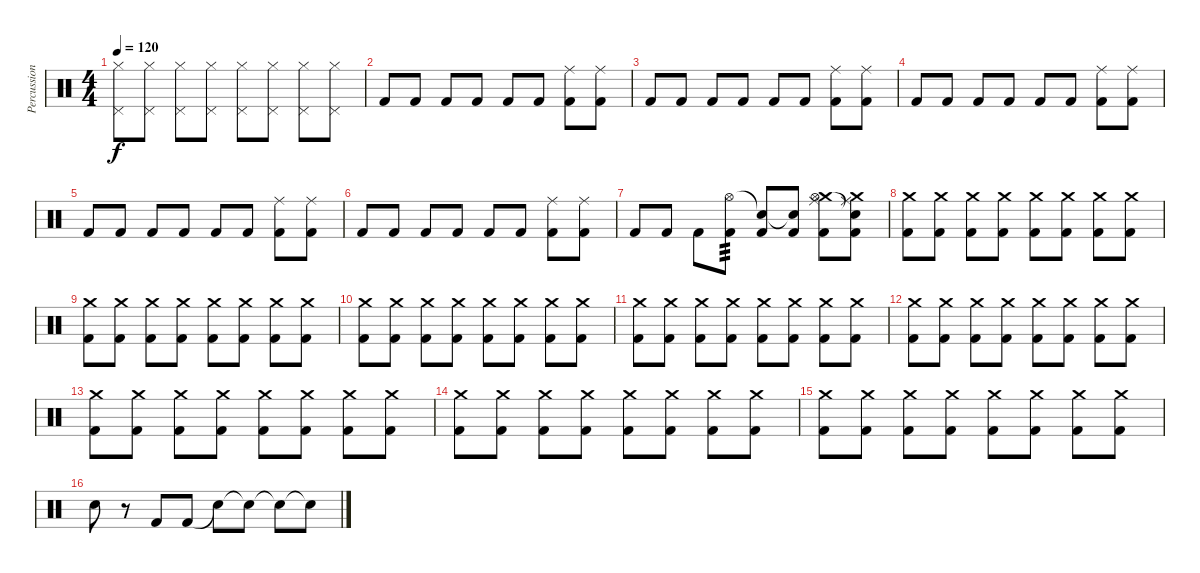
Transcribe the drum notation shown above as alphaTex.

\track ("Percussioni" "Percussion") {instrument percussion}
\staff {score}
\articulation defaults
\ts (4 4)
\tempo 120
\clef neutral
\ks c
("Pedal Hi-Hat (hit)" "Hi-Hat (closed)").8{dy f} ("Hi-Hat (closed)" "Pedal Hi-Hat (hit)").8 ("Pedal Hi-Hat (hit)" "Hi-Hat (closed)").8 ("Pedal Hi-Hat (hit)" "Hi-Hat (closed)").8 ("Pedal Hi-Hat (hit)" "Hi-Hat (closed)").8 ("Pedal Hi-Hat (hit)" "Hi-Hat (closed)").8 ("Pedal Hi-Hat (hit)" "Hi-Hat (closed)").8 ("Pedal Hi-Hat (hit)" "Hi-Hat (closed)").8 |
"Kick (hit) 2".8 "Kick (hit) 2".8 "Kick (hit) 2".8 "Kick (hit) 2".8 "Kick (hit) 2".8 "Kick (hit) 2".8 ("Kick (hit) 2" "Ride (middle)").8 ("Kick (hit) 2" "Ride (middle)").8 |
"Kick (hit) 2".8 "Kick (hit) 2".8 "Kick (hit) 2".8 "Kick (hit) 2".8 "Kick (hit) 2".8 "Kick (hit) 2".8 ("Kick (hit) 2" "Ride (middle)").8 ("Kick (hit) 2" "Ride (middle)").8 |
"Kick (hit) 2".8 "Kick (hit) 2".8 "Kick (hit) 2".8 "Kick (hit) 2".8 "Kick (hit) 2".8 "Kick (hit) 2".8 ("Kick (hit) 2" "Ride (middle)").8 ("Kick (hit) 2" "Ride (middle)").8 |
"Kick (hit) 2".8 "Kick (hit) 2".8 "Kick (hit) 2".8 "Kick (hit) 2".8 "Kick (hit) 2".8 "Kick (hit) 2".8 ("Kick (hit) 2" "Ride (middle)").8 ("Kick (hit) 2" "Ride (middle)").8 |
"Kick (hit) 2".8 "Kick (hit) 2".8 "Kick (hit) 2".8 "Kick (hit) 2".8 "Kick (hit) 2".8 "Kick (hit) 2".8 ("Kick (hit) 2" "Ride (middle)").8 ("Kick (hit) 2" "Ride (middle)").8 |
"Kick (hit) 2".8 "Kick (hit) 2".8 "Kick (hit) 2".8 ("Kick (hit) 2" "Hi-Hat (open)").8{tp 3} ("Kick (hit) 2" "Snare (hit)"{t}).8 ("Kick (hit) 2" "Snare (hit)"{t}).8 ("Kick (hit) 2" "Ride (middle)" "Crash medium (hit)" "Hi-Hat (open)").8 ("Kick (hit) 2" "Ride (middle)" "Crash medium (hit)" "Snare (hit)"{t}).8 |
("Kick (hit) 2" "Crash medium (hit)").8 ("Kick (hit) 2" "Crash medium (hit)").8 ("Kick (hit) 2" "Crash medium (hit)").8 ("Kick (hit) 2" "Crash medium (hit)").8 ("Kick (hit) 2" "Crash medium (hit)").8 ("Kick (hit) 2" "Crash medium (hit)").8 ("Kick (hit) 2" "Crash medium (hit)").8 ("Kick (hit) 2" "Crash medium (hit)").8 |
("Kick (hit) 2" "Crash medium (hit)").8 ("Kick (hit) 2" "Crash medium (hit)").8 ("Kick (hit) 2" "Crash medium (hit)").8 ("Kick (hit) 2" "Crash medium (hit)").8 ("Kick (hit) 2" "Crash medium (hit)").8 ("Kick (hit) 2" "Crash medium (hit)").8 ("Kick (hit) 2" "Crash medium (hit)").8 ("Kick (hit) 2" "Crash medium (hit)").8 |
("Kick (hit) 2" "Crash medium (hit)").8 ("Kick (hit) 2" "Crash medium (hit)").8 ("Kick (hit) 2" "Crash medium (hit)").8 ("Kick (hit) 2" "Crash medium (hit)").8 ("Kick (hit) 2" "Crash medium (hit)").8 ("Kick (hit) 2" "Crash medium (hit)").8 ("Kick (hit) 2" "Crash medium (hit)").8 ("Kick (hit) 2" "Crash medium (hit)").8 |
("Kick (hit) 2" "Crash medium (hit)").8 ("Kick (hit) 2" "Crash medium (hit)").8 ("Kick (hit) 2" "Crash medium (hit)").8 ("Kick (hit) 2" "Crash medium (hit)").8 ("Kick (hit) 2" "Crash medium (hit)").8 ("Kick (hit) 2" "Crash medium (hit)").8 ("Kick (hit) 2" "Crash medium (hit)").8 ("Kick (hit) 2" "Crash medium (hit)").8 |
("Kick (hit) 2" "Crash medium (hit)").8 ("Kick (hit) 2" "Crash medium (hit)").8 ("Kick (hit) 2" "Crash medium (hit)").8 ("Kick (hit) 2" "Crash medium (hit)").8 ("Kick (hit) 2" "Crash medium (hit)").8 ("Kick (hit) 2" "Crash medium (hit)").8 ("Kick (hit) 2" "Crash medium (hit)").8 ("Kick (hit) 2" "Crash medium (hit)").8 |
("Kick (hit) 2" "Crash medium (hit)").8 ("Kick (hit) 2" "Crash medium (hit)").8 ("Kick (hit) 2" "Crash medium (hit)").8 ("Kick (hit) 2" "Crash medium (hit)").8 ("Kick (hit) 2" "Crash medium (hit)").8 ("Kick (hit) 2" "Crash medium (hit)").8 ("Kick (hit) 2" "Crash medium (hit)").8 ("Kick (hit) 2" "Crash medium (hit)").8 |
("Kick (hit) 2" "Crash medium (hit)").8 ("Kick (hit) 2" "Crash medium (hit)").8 ("Kick (hit) 2" "Crash medium (hit)").8 ("Kick (hit) 2" "Crash medium (hit)").8 ("Kick (hit) 2" "Crash medium (hit)").8 ("Kick (hit) 2" "Crash medium (hit)").8 ("Kick (hit) 2" "Crash medium (hit)").8 ("Kick (hit) 2" "Crash medium (hit)").8 |
("Kick (hit) 2" "Crash medium (hit)").8 ("Kick (hit) 2" "Crash medium (hit)").8 ("Kick (hit) 2" "Crash medium (hit)").8 ("Kick (hit) 2" "Crash medium (hit)").8 ("Kick (hit) 2" "Crash medium (hit)").8 ("Kick (hit) 2" "Crash medium (hit)").8 ("Kick (hit) 2" "Crash medium (hit)").8 ("Kick (hit) 2" "Crash medium (hit)").8 |
"Snare (hit) 2".8 r.8 "Kick (hit) 2".8 "Kick (hit) 2".8 "Snare (hit)"{t}.8 "Snare (hit)"{t}.8 "Snare (hit)"{t}.8 "Snare (hit)"{t}.8
